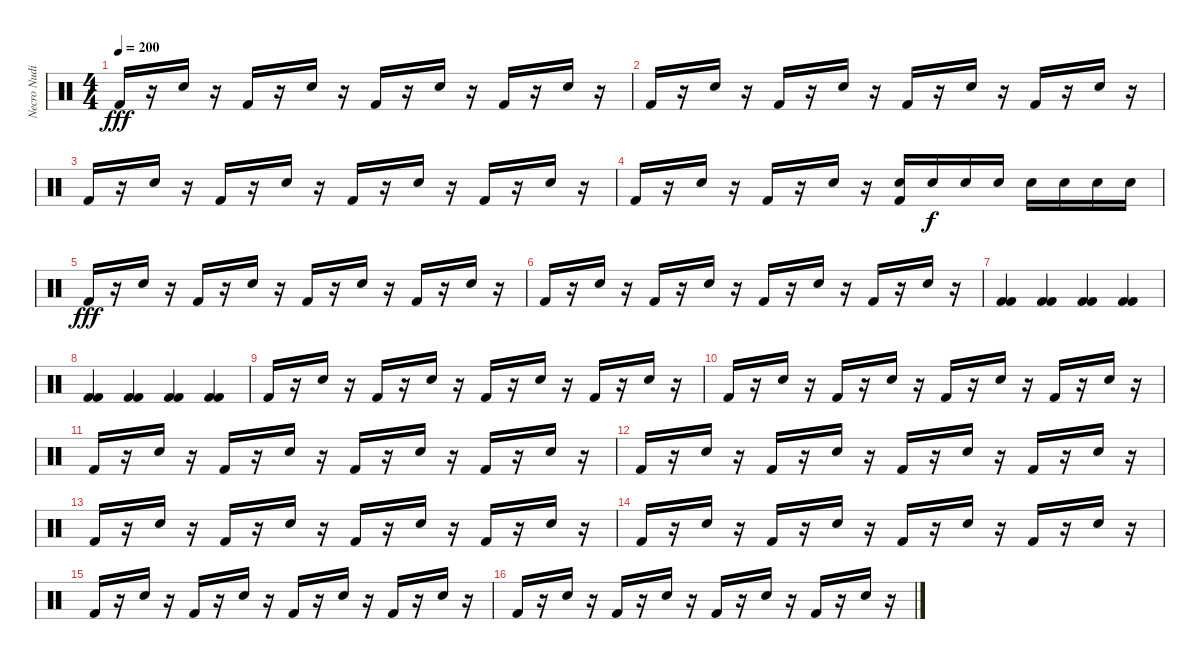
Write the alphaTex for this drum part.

\track ("Necro Nudist" "Necro Nudi") {instrument percussion}
\staff {score}
\articulation defaults
\ts (4 4)
\tempo 200
\clef neutral
\ks c "Kick (hit) 2".16{dy fff}
r.16 "Snare (hit) 2".16 r.16 "Kick (hit) 2".16 r.16 "Snare (hit) 2".16 r.16 "Kick (hit) 2".16 r.16 "Snare (hit) 2".16 r.16 "Kick (hit) 2".16 r.16 "Snare (hit) 2".16 r.16 |
"Kick (hit) 2".16 r.16 "Snare (hit) 2".16 r.16 "Kick (hit) 2".16 r.16 "Snare (hit) 2".16 r.16 "Kick (hit) 2".16 r.16 "Snare (hit) 2".16 r.16 "Kick (hit) 2".16 r.16 "Snare (hit) 2".16 r.16 |
"Kick (hit) 2".16 r.16 "Snare (hit) 2".16 r.16 "Kick (hit) 2".16 r.16 "Snare (hit) 2".16 r.16 "Kick (hit) 2".16 r.16 "Snare (hit) 2".16 r.16 "Kick (hit) 2".16 r.16 "Snare (hit) 2".16 r.16 |
"Kick (hit) 2".16 r.16 "Snare (hit) 2".16 r.16 "Kick (hit) 2".16 r.16 "Snare (hit) 2".16 r.16 ("Snare (hit) 2" "Kick (hit) 2").16 "Snare (hit) 2".16{dy f} "Snare (hit) 2".16 "Snare (hit) 2".16 "Snare (hit) 2".16 "Snare (hit) 2".16 "Snare (hit) 2".16 "Snare (hit) 2".16 |
"Kick (hit) 2".16{dy fff} r.16 "Snare (hit) 2".16 r.16 "Kick (hit) 2".16 r.16 "Snare (hit) 2".16 r.16 "Kick (hit) 2".16 r.16 "Snare (hit) 2".16 r.16 "Kick (hit) 2".16 r.16 "Snare (hit) 2".16 r.16 |
"Kick (hit) 2".16 r.16 "Snare (hit) 2".16 r.16 "Kick (hit) 2".16 r.16 "Snare (hit) 2".16 r.16 "Kick (hit) 2".16 r.16 "Snare (hit) 2".16 r.16 "Kick (hit) 2".16 r.16 "Snare (hit) 2".16 r.16 |
("Kick (hit) 2" "Kick (hit) 2").4 ("Kick (hit) 2" "Kick (hit) 2").4 ("Kick (hit) 2" "Kick (hit) 2").4 ("Kick (hit) 2" "Kick (hit) 2").4 |
("Kick (hit) 2" "Kick (hit) 2").4 ("Kick (hit) 2" "Kick (hit) 2").4 ("Kick (hit) 2" "Kick (hit) 2").4 ("Kick (hit) 2" "Kick (hit) 2").4 |
"Kick (hit) 2".16 r.16 "Snare (hit) 2".16 r.16 "Kick (hit) 2".16 r.16 "Snare (hit) 2".16 r.16 "Kick (hit) 2".16 r.16 "Snare (hit) 2".16 r.16 "Kick (hit) 2".16 r.16 "Snare (hit) 2".16 r.16 |
"Kick (hit) 2".16 r.16 "Snare (hit) 2".16 r.16 "Kick (hit) 2".16 r.16 "Snare (hit) 2".16 r.16 "Kick (hit) 2".16 r.16 "Snare (hit) 2".16 r.16 "Kick (hit) 2".16 r.16 "Snare (hit) 2".16 r.16 |
"Kick (hit) 2".16 r.16 "Snare (hit) 2".16 r.16 "Kick (hit) 2".16 r.16 "Snare (hit) 2".16 r.16 "Kick (hit) 2".16 r.16 "Snare (hit) 2".16 r.16 "Kick (hit) 2".16 r.16 "Snare (hit) 2".16 r.16 |
"Kick (hit) 2".16 r.16 "Snare (hit) 2".16 r.16 "Kick (hit) 2".16 r.16 "Snare (hit) 2".16 r.16 "Kick (hit) 2".16 r.16 "Snare (hit) 2".16 r.16 "Kick (hit) 2".16 r.16 "Snare (hit) 2".16 r.16 |
"Kick (hit) 2".16 r.16 "Snare (hit) 2".16 r.16 "Kick (hit) 2".16 r.16 "Snare (hit) 2".16 r.16 "Kick (hit) 2".16 r.16 "Snare (hit) 2".16 r.16 "Kick (hit) 2".16 r.16 "Snare (hit) 2".16 r.16 |
"Kick (hit) 2".16 r.16 "Snare (hit) 2".16 r.16 "Kick (hit) 2".16 r.16 "Snare (hit) 2".16 r.16 "Kick (hit) 2".16 r.16 "Snare (hit) 2".16 r.16 "Kick (hit) 2".16 r.16 "Snare (hit) 2".16 r.16 |
"Kick (hit) 2".16 r.16 "Snare (hit) 2".16 r.16 "Kick (hit) 2".16 r.16 "Snare (hit) 2".16 r.16 "Kick (hit) 2".16 r.16 "Snare (hit) 2".16 r.16 "Kick (hit) 2".16 r.16 "Snare (hit) 2".16 r.16 |
"Kick (hit) 2".16 r.16 "Snare (hit) 2".16 r.16 "Kick (hit) 2".16 r.16 "Snare (hit) 2".16 r.16 "Kick (hit) 2".16 r.16 "Snare (hit) 2".16 r.16 "Kick (hit) 2".16 r.16 "Snare (hit) 2".16 r.16
